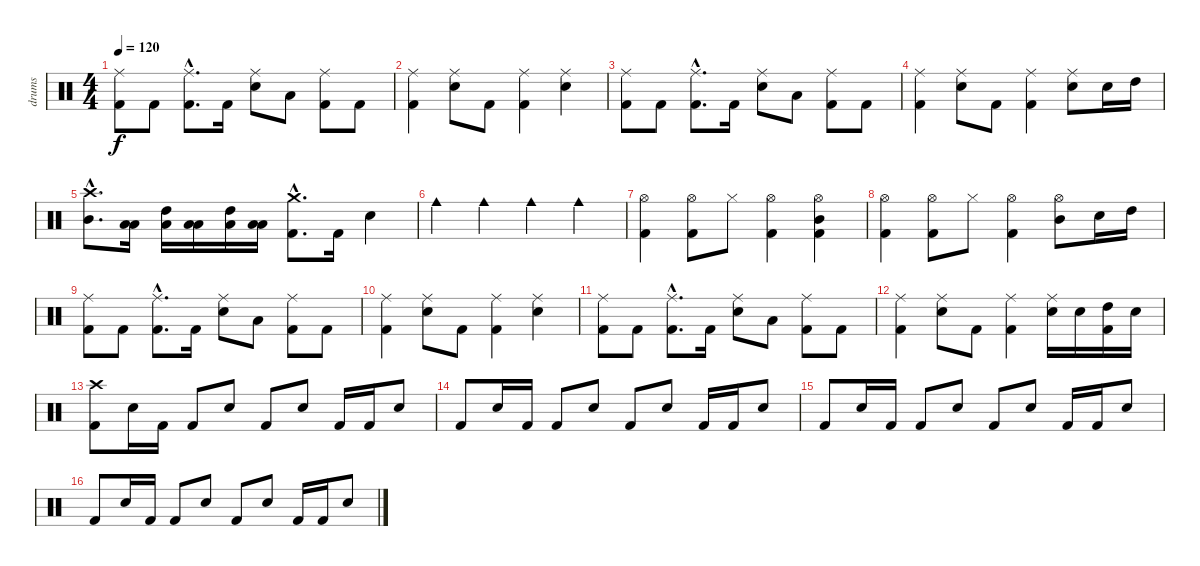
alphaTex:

\track ("drums" "drums") {instrument percussion}
\staff {score}
\articulation defaults
\ts (4 4)
\tempo 120
\clef neutral
\ks c
("Ride (middle)" "Kick (hit) 2").8{dy f} "Kick (hit) 2".8 ("Ride (middle)"{hac} "Kick (hit) 2"{hac}).8{d} "Kick (hit) 2".16 ("Ride (middle)" "Electric Snare (hit)").8 "Low Tom (hit)".8 ("Ride (middle)" "Kick (hit) 2").8 "Kick (hit) 2".8 |
("Ride (middle)" "Kick (hit) 2").4 ("Ride (middle)" "Electric Snare (hit)").8 "Kick (hit) 2".8 ("Ride (middle)" "Kick (hit) 2").4 ("Ride (middle)" "Electric Snare (hit)").4 |
("Ride (middle)" "Kick (hit) 2").8 "Kick (hit) 2".8 ("Ride (middle)"{hac} "Kick (hit) 2"{hac}).8{d} "Kick (hit) 2".16 ("Ride (middle)" "Electric Snare (hit)").8 "Low Tom (hit)".8 ("Ride (middle)" "Kick (hit) 2").8 "Kick (hit) 2".8 |
("Ride (middle)" "Kick (hit) 2").4 ("Ride (middle)" "Electric Snare (hit)").8 "Kick (hit) 2".8 ("Ride (middle)" "Kick (hit) 2").4 ("Ride (middle)" "Electric Snare (hit)").8 "Electric Snare (hit)".16 "High Tom (hit)".16 |
("Crash high (hit)"{hac} "Mid Tom (hit)"{hac}).8{d} ("Low Floor Tom (hit)" "Low Tom (hit)").16 ("Low Floor Tom (hit)" "High Tom (hit)").16 ("Low Floor Tom (hit)" "Low Tom (hit)").16 ("Low Floor Tom (hit)" "High Tom (hit)").16 ("Low Floor Tom (hit)" "Low Tom (hit)").16 ("Crash medium (hit)"{hac} "Kick (hit) 2"{hac}).8{d} "Kick (hit) 2".16 "Electric Snare (hit)".4 |
"Cowbell medium (hit)".4 "Cowbell medium (hit)".4 "Cowbell medium (hit)".4 "Cowbell medium (hit)".4 |
("Hi-Hat (open)" "Kick (hit) 2").4 ("Hi-Hat (open)" "Kick (hit) 2").8 "Hi-Hat (closed)".8 ("Hi-Hat (open)" "Kick (hit) 2").4 ("Hi-Hat (open)" "Mid Tom (hit)" "Kick (hit) 2").4 |
("Hi-Hat (open)" "Kick (hit) 2").4 ("Hi-Hat (open)" "Kick (hit) 2").8 "Hi-Hat (closed)".8 ("Hi-Hat (open)" "Kick (hit) 2").4 ("Hi-Hat (open)" "Mid Tom (hit)").8 "Electric Snare (hit)".16 "High Tom (hit)".16 |
("Ride (middle)" "Kick (hit) 2").8 "Kick (hit) 2".8 ("Ride (middle)"{hac} "Kick (hit) 2"{hac}).8{d} "Kick (hit) 2".16 ("Ride (middle)" "Electric Snare (hit)").8 "Low Tom (hit)".8 ("Ride (middle)" "Kick (hit) 2").8 "Kick (hit) 2".8 |
("Ride (middle)" "Kick (hit) 2").4 ("Ride (middle)" "Electric Snare (hit)").8 "Kick (hit) 2".8 ("Ride (middle)" "Kick (hit) 2").4 ("Ride (middle)" "Electric Snare (hit)").4 |
("Ride (middle)" "Kick (hit) 2").8 "Kick (hit) 2".8 ("Ride (middle)"{hac} "Kick (hit) 2"{hac}).8{d} "Kick (hit) 2".16 ("Ride (middle)" "Electric Snare (hit)").8 "Low Tom (hit)".8 ("Ride (middle)" "Kick (hit) 2").8 "Kick (hit) 2".8 |
("Ride (middle)" "Kick (hit) 2").4 ("Ride (middle)" "Electric Snare (hit)").8 "Kick (hit) 2".8 ("Ride (middle)" "Kick (hit) 2").4 ("Ride (middle)" "Electric Snare (hit)").16 "Electric Snare (hit)".16 ("High Tom (hit)" "Kick (hit) 2").16 "Electric Snare (hit)".16 |
("Crash high (hit)" "Kick (hit) 2").8 "Electric Snare (hit)".16 "Kick (hit) 2".16 "Kick (hit) 2".8 "Electric Snare (hit)".8 "Kick (hit) 2".8 "Electric Snare (hit)".8 "Kick (hit) 2".16 "Kick (hit) 2".16 "Electric Snare (hit)".8 |
"Kick (hit) 2".8 "Electric Snare (hit)".16 "Kick (hit) 2".16 "Kick (hit) 2".8 "Electric Snare (hit)".8 "Kick (hit) 2".8 "Electric Snare (hit)".8 "Kick (hit) 2".16 "Kick (hit) 2".16 "Electric Snare (hit)".8 |
"Kick (hit) 2".8 "Electric Snare (hit)".16 "Kick (hit) 2".16 "Kick (hit) 2".8 "Electric Snare (hit)".8 "Kick (hit) 2".8 "Electric Snare (hit)".8 "Kick (hit) 2".16 "Kick (hit) 2".16 "Electric Snare (hit)".8 |
"Kick (hit) 2".8 "Electric Snare (hit)".16 "Kick (hit) 2".16 "Kick (hit) 2".8 "Electric Snare (hit)".8 "Kick (hit) 2".8 "Electric Snare (hit)".8 "Kick (hit) 2".16 "Kick (hit) 2".16 "Electric Snare (hit)".8
